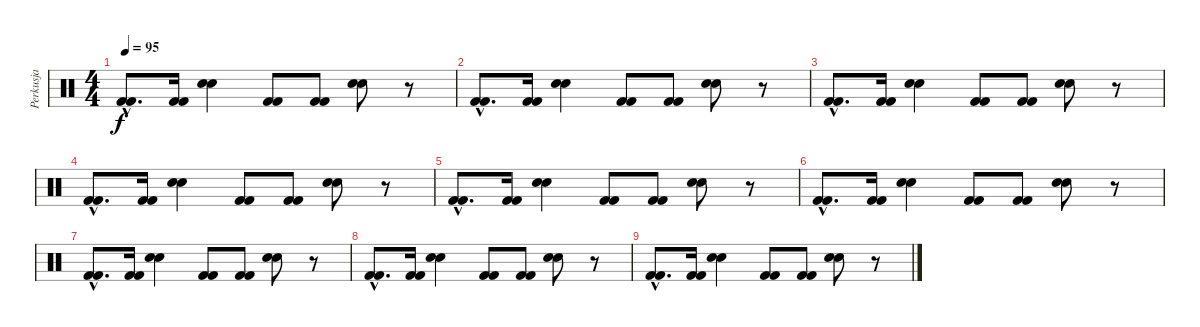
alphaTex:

\track ("Perkusja" "Perkusja") {instrument percussion}
\staff {score}
\articulation defaults
\ts (4 4)
\tempo 95
\clef neutral
\ks c
("Kick (hit) 2"{hac} "Kick (hit) 2"{hac}).8{d dy f} ("Kick (hit) 2" "Kick (hit) 2").16 ("Electric Snare (hit)" "Hand Clap (hit)").4 ("Kick (hit) 2" "Kick (hit) 2").8 ("Kick (hit) 2" "Kick (hit) 2").8 ("Electric Snare (hit)" "Hand Clap (hit)").8 r.8 |
("Kick (hit) 2"{hac} "Kick (hit) 2"{hac}).8{d} ("Kick (hit) 2" "Kick (hit) 2").16 ("Electric Snare (hit)" "Hand Clap (hit)").4 ("Kick (hit) 2" "Kick (hit) 2").8 ("Kick (hit) 2" "Kick (hit) 2").8 ("Electric Snare (hit)" "Hand Clap (hit)").8 r.8 |
("Kick (hit) 2"{hac} "Kick (hit) 2"{hac}).8{d} ("Kick (hit) 2" "Kick (hit) 2").16 ("Electric Snare (hit)" "Hand Clap (hit)").4 ("Kick (hit) 2" "Kick (hit) 2").8 ("Kick (hit) 2" "Kick (hit) 2").8 ("Electric Snare (hit)" "Hand Clap (hit)").8 r.8 |
("Kick (hit) 2"{hac} "Kick (hit) 2"{hac}).8{d} ("Kick (hit) 2" "Kick (hit) 2").16 ("Electric Snare (hit)" "Hand Clap (hit)").4 ("Kick (hit) 2" "Kick (hit) 2").8 ("Kick (hit) 2" "Kick (hit) 2").8 ("Electric Snare (hit)" "Hand Clap (hit)").8 r.8 |
("Kick (hit) 2"{hac} "Kick (hit) 2"{hac}).8{d} ("Kick (hit) 2" "Kick (hit) 2").16 ("Electric Snare (hit)" "Hand Clap (hit)").4 ("Kick (hit) 2" "Kick (hit) 2").8 ("Kick (hit) 2" "Kick (hit) 2").8 ("Electric Snare (hit)" "Hand Clap (hit)").8 r.8 |
("Kick (hit) 2"{hac} "Kick (hit) 2"{hac}).8{d} ("Kick (hit) 2" "Kick (hit) 2").16 ("Electric Snare (hit)" "Hand Clap (hit)").4 ("Kick (hit) 2" "Kick (hit) 2").8 ("Kick (hit) 2" "Kick (hit) 2").8 ("Electric Snare (hit)" "Hand Clap (hit)").8 r.8 |
("Kick (hit) 2"{hac} "Kick (hit) 2"{hac}).8{d} ("Kick (hit) 2" "Kick (hit) 2").16 ("Electric Snare (hit)" "Hand Clap (hit)").4 ("Kick (hit) 2" "Kick (hit) 2").8 ("Kick (hit) 2" "Kick (hit) 2").8 ("Electric Snare (hit)" "Hand Clap (hit)").8 r.8 |
("Kick (hit) 2"{hac} "Kick (hit) 2"{hac}).8{d} ("Kick (hit) 2" "Kick (hit) 2").16 ("Electric Snare (hit)" "Hand Clap (hit)").4 ("Kick (hit) 2" "Kick (hit) 2").8 ("Kick (hit) 2" "Kick (hit) 2").8 ("Electric Snare (hit)" "Hand Clap (hit)").8 r.8 |
("Kick (hit) 2"{hac} "Kick (hit) 2"{hac}).8{d} ("Kick (hit) 2" "Kick (hit) 2").16 ("Electric Snare (hit)" "Hand Clap (hit)").4 ("Kick (hit) 2" "Kick (hit) 2").8 ("Kick (hit) 2" "Kick (hit) 2").8 ("Electric Snare (hit)" "Hand Clap (hit)").8 r.8
